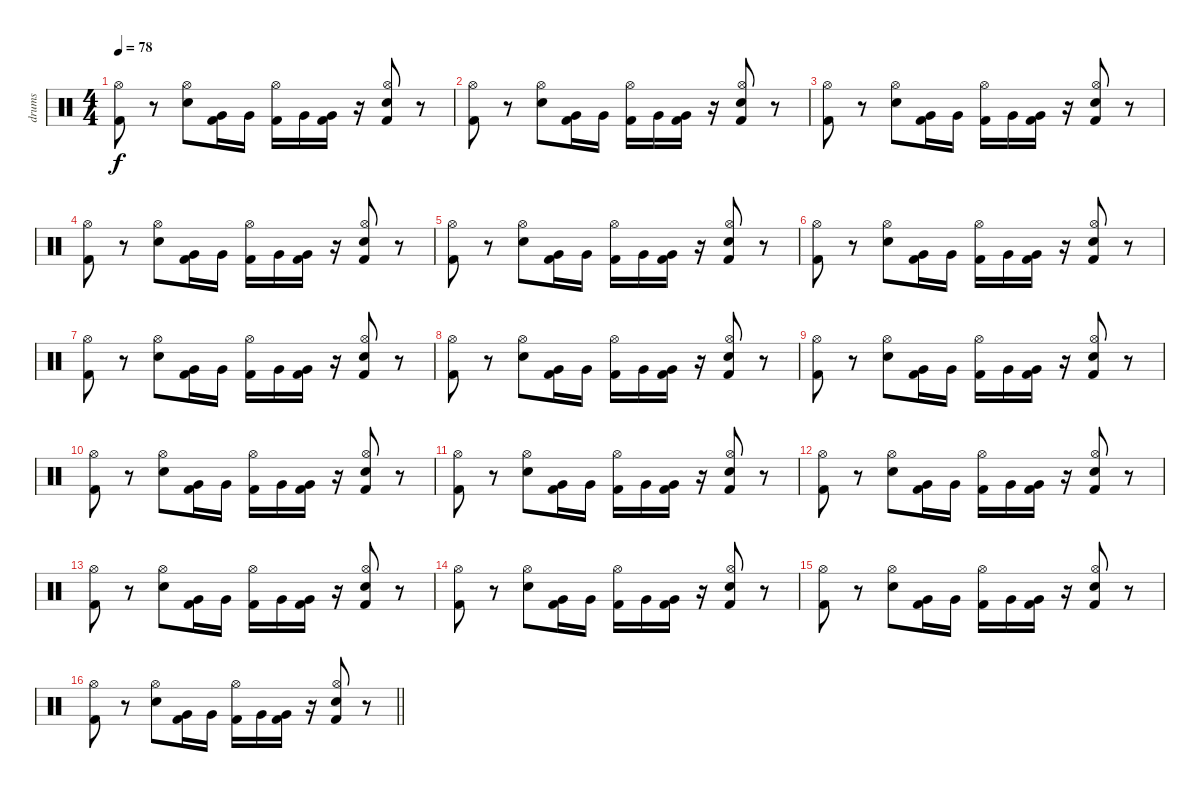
\track ("drums" "drums") {instrument percussion}
\staff {score}
\articulation defaults
\ts (4 4)
\tempo 78
\clef neutral
\ks c
("Kick (hit) 2" "Hi-Hat (open)").8{dy f} r.8 ("Electric Snare (hit)" "Hi-Hat (open)").8 ("Kick (hit) 2" "Very Low Tom (hit)").16 "Very Low Tom (hit)".16 ("Kick (hit) 2" "Hi-Hat (open)").16 "Very Low Tom (hit)".16 ("Kick (hit) 2" "Very Low Tom (hit)").16 r.16 ("Kick (hit) 2" "Electric Snare (hit)" "Hi-Hat (open)").8 r.8 |
("Kick (hit) 2" "Hi-Hat (open)").8 r.8 ("Electric Snare (hit)" "Hi-Hat (open)").8 ("Kick (hit) 2" "Very Low Tom (hit)").16 "Very Low Tom (hit)".16 ("Kick (hit) 2" "Hi-Hat (open)").16 "Very Low Tom (hit)".16 ("Kick (hit) 2" "Very Low Tom (hit)").16 r.16 ("Kick (hit) 2" "Electric Snare (hit)" "Hi-Hat (open)").8 r.8 |
("Kick (hit) 2" "Hi-Hat (open)").8 r.8 ("Electric Snare (hit)" "Hi-Hat (open)").8 ("Kick (hit) 2" "Very Low Tom (hit)").16 "Very Low Tom (hit)".16 ("Kick (hit) 2" "Hi-Hat (open)").16 "Very Low Tom (hit)".16 ("Kick (hit) 2" "Very Low Tom (hit)").16 r.16 ("Kick (hit) 2" "Electric Snare (hit)" "Hi-Hat (open)").8 r.8 |
("Kick (hit) 2" "Hi-Hat (open)").8 r.8 ("Electric Snare (hit)" "Hi-Hat (open)").8 ("Kick (hit) 2" "Very Low Tom (hit)").16 "Very Low Tom (hit)".16 ("Kick (hit) 2" "Hi-Hat (open)").16 "Very Low Tom (hit)".16 ("Kick (hit) 2" "Very Low Tom (hit)").16 r.16 ("Kick (hit) 2" "Electric Snare (hit)" "Hi-Hat (open)").8 r.8 |
("Kick (hit) 2" "Hi-Hat (open)").8 r.8 ("Electric Snare (hit)" "Hi-Hat (open)").8 ("Kick (hit) 2" "Very Low Tom (hit)").16 "Very Low Tom (hit)".16 ("Kick (hit) 2" "Hi-Hat (open)").16 "Very Low Tom (hit)".16 ("Kick (hit) 2" "Very Low Tom (hit)").16 r.16 ("Kick (hit) 2" "Electric Snare (hit)" "Hi-Hat (open)").8 r.8 |
("Kick (hit) 2" "Hi-Hat (open)").8 r.8 ("Electric Snare (hit)" "Hi-Hat (open)").8 ("Kick (hit) 2" "Very Low Tom (hit)").16 "Very Low Tom (hit)".16 ("Kick (hit) 2" "Hi-Hat (open)").16 "Very Low Tom (hit)".16 ("Kick (hit) 2" "Very Low Tom (hit)").16 r.16 ("Kick (hit) 2" "Electric Snare (hit)" "Hi-Hat (open)").8 r.8 |
("Kick (hit) 2" "Hi-Hat (open)").8 r.8 ("Electric Snare (hit)" "Hi-Hat (open)").8 ("Kick (hit) 2" "Very Low Tom (hit)").16 "Very Low Tom (hit)".16 ("Kick (hit) 2" "Hi-Hat (open)").16 "Very Low Tom (hit)".16 ("Kick (hit) 2" "Very Low Tom (hit)").16 r.16 ("Kick (hit) 2" "Electric Snare (hit)" "Hi-Hat (open)").8 r.8 |
("Kick (hit) 2" "Hi-Hat (open)").8 r.8 ("Electric Snare (hit)" "Hi-Hat (open)").8 ("Kick (hit) 2" "Very Low Tom (hit)").16 "Very Low Tom (hit)".16 ("Kick (hit) 2" "Hi-Hat (open)").16 "Very Low Tom (hit)".16 ("Kick (hit) 2" "Very Low Tom (hit)").16 r.16 ("Kick (hit) 2" "Electric Snare (hit)" "Hi-Hat (open)").8 r.8 |
("Kick (hit) 2" "Hi-Hat (open)").8 r.8 ("Electric Snare (hit)" "Hi-Hat (open)").8 ("Kick (hit) 2" "Very Low Tom (hit)").16 "Very Low Tom (hit)".16 ("Kick (hit) 2" "Hi-Hat (open)").16 "Very Low Tom (hit)".16 ("Kick (hit) 2" "Very Low Tom (hit)").16 r.16 ("Kick (hit) 2" "Electric Snare (hit)" "Hi-Hat (open)").8 r.8 |
("Kick (hit) 2" "Hi-Hat (open)").8 r.8 ("Electric Snare (hit)" "Hi-Hat (open)").8 ("Kick (hit) 2" "Very Low Tom (hit)").16 "Very Low Tom (hit)".16 ("Kick (hit) 2" "Hi-Hat (open)").16 "Very Low Tom (hit)".16 ("Kick (hit) 2" "Very Low Tom (hit)").16 r.16 ("Kick (hit) 2" "Electric Snare (hit)" "Hi-Hat (open)").8 r.8 |
("Kick (hit) 2" "Hi-Hat (open)").8 r.8 ("Electric Snare (hit)" "Hi-Hat (open)").8 ("Kick (hit) 2" "Very Low Tom (hit)").16 "Very Low Tom (hit)".16 ("Kick (hit) 2" "Hi-Hat (open)").16 "Very Low Tom (hit)".16 ("Kick (hit) 2" "Very Low Tom (hit)").16 r.16 ("Kick (hit) 2" "Electric Snare (hit)" "Hi-Hat (open)").8 r.8 |
("Kick (hit) 2" "Hi-Hat (open)").8 r.8 ("Electric Snare (hit)" "Hi-Hat (open)").8 ("Kick (hit) 2" "Very Low Tom (hit)").16 "Very Low Tom (hit)".16 ("Kick (hit) 2" "Hi-Hat (open)").16 "Very Low Tom (hit)".16 ("Kick (hit) 2" "Very Low Tom (hit)").16 r.16 ("Kick (hit) 2" "Electric Snare (hit)" "Hi-Hat (open)").8 r.8 |
("Kick (hit) 2" "Hi-Hat (open)").8 r.8 ("Electric Snare (hit)" "Hi-Hat (open)").8 ("Kick (hit) 2" "Very Low Tom (hit)").16 "Very Low Tom (hit)".16 ("Kick (hit) 2" "Hi-Hat (open)").16 "Very Low Tom (hit)".16 ("Kick (hit) 2" "Very Low Tom (hit)").16 r.16 ("Kick (hit) 2" "Electric Snare (hit)" "Hi-Hat (open)").8 r.8 |
("Kick (hit) 2" "Hi-Hat (open)").8 r.8 ("Electric Snare (hit)" "Hi-Hat (open)").8 ("Kick (hit) 2" "Very Low Tom (hit)").16 "Very Low Tom (hit)".16 ("Kick (hit) 2" "Hi-Hat (open)").16 "Very Low Tom (hit)".16 ("Kick (hit) 2" "Very Low Tom (hit)").16 r.16 ("Kick (hit) 2" "Electric Snare (hit)" "Hi-Hat (open)").8 r.8 |
("Kick (hit) 2" "Hi-Hat (open)").8 r.8 ("Electric Snare (hit)" "Hi-Hat (open)").8 ("Kick (hit) 2" "Very Low Tom (hit)").16 "Very Low Tom (hit)".16 ("Kick (hit) 2" "Hi-Hat (open)").16 "Very Low Tom (hit)".16 ("Kick (hit) 2" "Very Low Tom (hit)").16 r.16 ("Kick (hit) 2" "Electric Snare (hit)" "Hi-Hat (open)").8 r.8 |
\barLineRight lightlight
("Kick (hit) 2" "Hi-Hat (open)").8 r.8 ("Electric Snare (hit)" "Hi-Hat (open)").8 ("Kick (hit) 2" "Very Low Tom (hit)").16 "Very Low Tom (hit)".16 ("Kick (hit) 2" "Hi-Hat (open)").16 "Very Low Tom (hit)".16 ("Kick (hit) 2" "Very Low Tom (hit)").16 r.16 ("Kick (hit) 2" "Electric Snare (hit)" "Hi-Hat (open)").8 r.8
